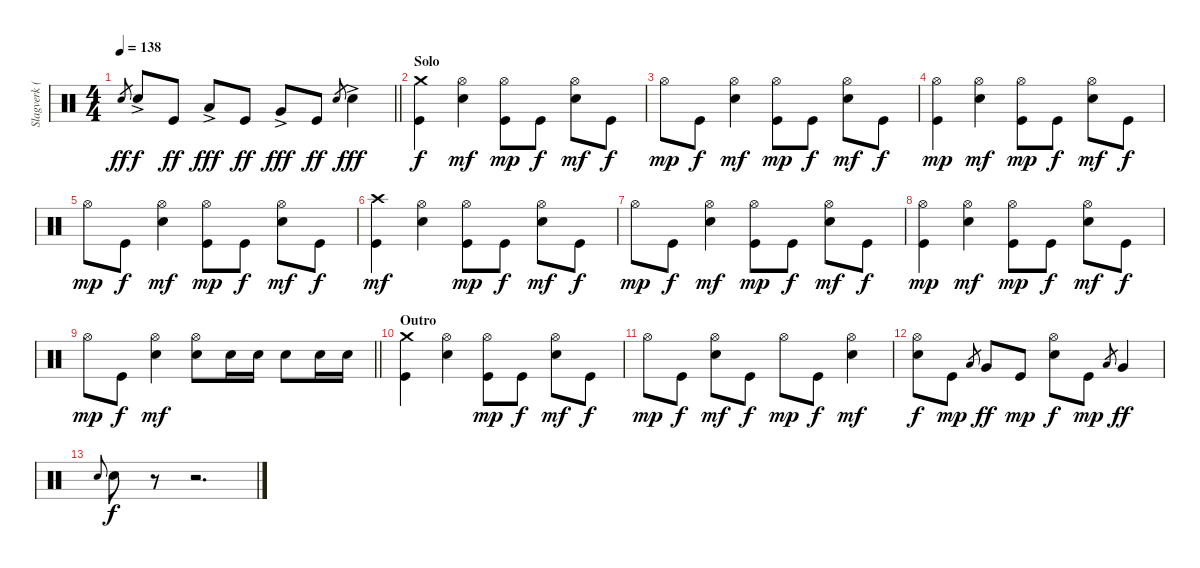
\track ("Slagverk (Jan Kristiansen)" "Slagverk (") {instrument percussion}
\staff {score}
\articulation defaults
\ts (4 4)
\tempo 138
\clef neutral
\barLineRight lightlight
\ks c "Snare (hit) 2".8{gr dy ff} "Snare (hit) 2"{ac}.8{dy f} "Kick (hit)".8{dy ff} "Low Tom (hit)"{ac}.8{dy fff} "Kick (hit)".8{dy ff} "Very Low Tom (hit)"{ac}.8{dy fff} "Kick (hit)".8{dy ff} "Snare (hit) 2".8{gr} "Snare (hit) 2"{ac}.4{dy fff}
|
\section ("" "Solo")
("Crash medium (hit)" "Kick (hit)").4{dy f} ("Hi-Hat (open)" "Snare (hit) 2").4{dy mf} ("Hi-Hat (open)" "Kick (hit)").8{dy mp} "Kick (hit)".8{dy f} ("Hi-Hat (open)" "Snare (hit) 2").8{dy mf} "Kick (hit)".8{dy f} |
"Hi-Hat (open)".8{dy mp} "Kick (hit)".8{dy f} ("Hi-Hat (open)" "Snare (hit) 2").4{dy mf} ("Hi-Hat (open)" "Kick (hit)").8{dy mp} "Kick (hit)".8{dy f} ("Hi-Hat (open)" "Snare (hit) 2").8{dy mf} "Kick (hit)".8{dy f} |
("Hi-Hat (open)" "Kick (hit)").4{dy mp} ("Hi-Hat (open)" "Snare (hit) 2").4{dy mf} ("Hi-Hat (open)" "Kick (hit)").8{dy mp} "Kick (hit)".8{dy f} ("Hi-Hat (open)" "Snare (hit) 2").8{dy mf} "Kick (hit)".8{dy f} |
"Hi-Hat (open)".8{dy mp} "Kick (hit)".8{dy f} ("Hi-Hat (open)" "Snare (hit) 2").4{dy mf} ("Hi-Hat (open)" "Kick (hit)").8{dy mp} "Kick (hit)".8{dy f} ("Hi-Hat (open)" "Snare (hit) 2").8{dy mf} "Kick (hit)".8{dy f} |
("Crash high (hit)" "Kick (hit)").4{dy mf} ("Hi-Hat (open)" "Snare (hit) 2").4 ("Hi-Hat (open)" "Kick (hit)").8{dy mp} "Kick (hit)".8{dy f} ("Hi-Hat (open)" "Snare (hit) 2").8{dy mf} "Kick (hit)".8{dy f} |
"Hi-Hat (open)".8{dy mp} "Kick (hit)".8{dy f} ("Hi-Hat (open)" "Snare (hit) 2").4{dy mf} ("Hi-Hat (open)" "Kick (hit)").8{dy mp} "Kick (hit)".8{dy f} ("Hi-Hat (open)" "Snare (hit) 2").8{dy mf} "Kick (hit)".8{dy f} |
("Hi-Hat (open)" "Kick (hit)").4{dy mp} ("Hi-Hat (open)" "Snare (hit) 2").4{dy mf} ("Hi-Hat (open)" "Kick (hit)").8{dy mp} "Kick (hit)".8{dy f} ("Hi-Hat (open)" "Snare (hit) 2").8{dy mf} "Kick (hit)".8{dy f} |
\barLineRight lightlight "Hi-Hat (open)".8{dy mp} "Kick (hit)".8{dy f}
("Hi-Hat (open)" "Snare (hit) 2").4{dy mf} ("Hi-Hat (open)" "Snare (hit) 2").8 "Snare (hit) 2".16 "Snare (hit) 2".16 "Snare (hit) 2".8 "Snare (hit) 2".16 "Snare (hit) 2".16 |
\section ("" "Outro")
("Crash medium (hit)" "Kick (hit)").4 ("Hi-Hat (open)" "Snare (hit) 2").4 ("Hi-Hat (open)" "Kick (hit)").8{dy mp} "Kick (hit)".8{dy f} ("Hi-Hat (open)" "Snare (hit) 2").8{dy mf} "Kick (hit)".8{dy f} |
"Hi-Hat (open)".8{dy mp} "Kick (hit)".8{dy f} ("Hi-Hat (open)" "Snare (hit) 2").8{dy mf} "Kick (hit)".8{dy f} "Hi-Hat (open)".8{dy mp} "Kick (hit)".8{dy f} ("Hi-Hat (open)" "Snare (hit) 2").4{dy mf} |
("Hi-Hat (open)" "Snare (hit) 2").8{dy f} "Kick (hit)".8{dy mp} "Low Tom (hit)".8{gr} "Very Low Tom (hit)".8{dy ff} "Kick (hit)".8{dy mp} ("Hi-Hat (open)" "Snare (hit) 2").8{dy f} "Kick (hit)".8{dy mp} "Low Tom (hit)".8{gr} "Very Low Tom (hit)".4{dy ff} |
"Snare (hit) 2".8{gr onbeat} "Snare (hit) 2".8{dy f} r.8 r.2{d}
